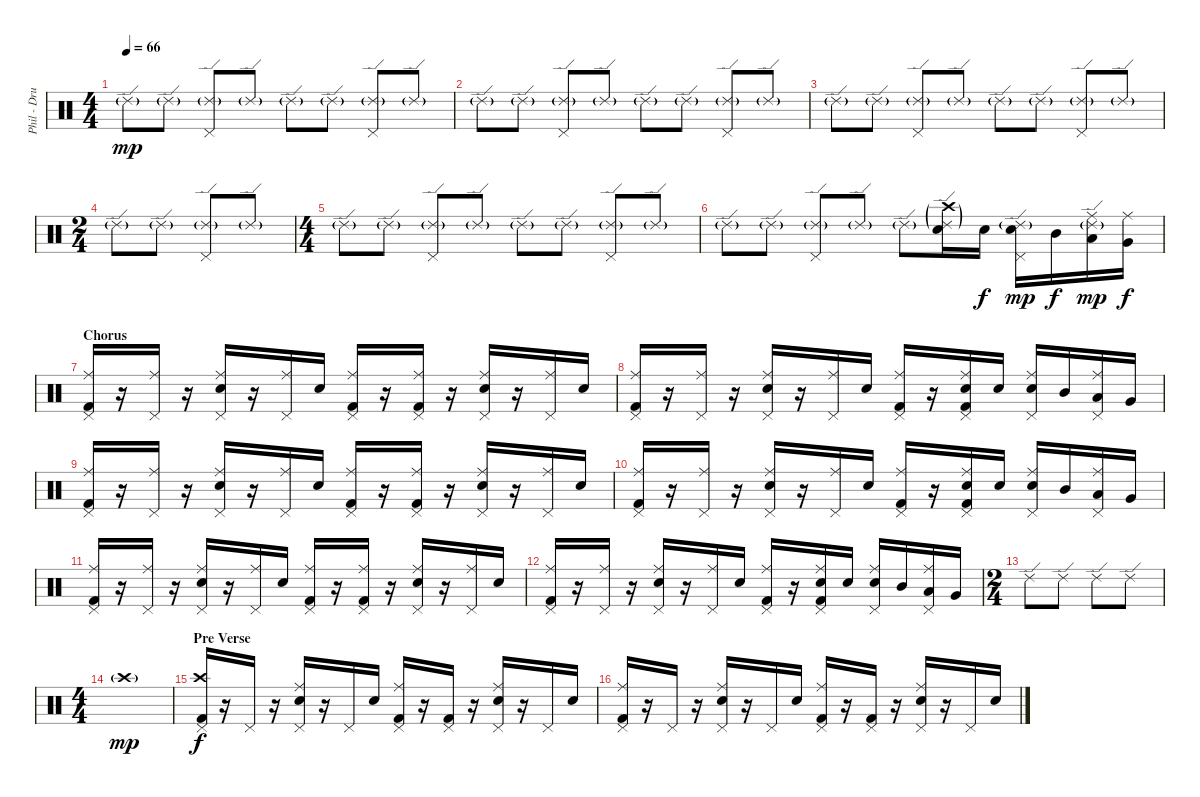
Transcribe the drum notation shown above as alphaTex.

\track ("Phil - Drums" "Phil - Dru") {instrument percussion}
\staff {score}
\articulation defaults
\ts (4 4)
\tempo 66
\clef neutral
\ks c "Ride (edge) 2"{g}.8{dy mp} "Ride (edge) 2"{g}.8
("Pedal Hi-Hat (hit)" "Ride (edge) 2"{g}).8 "Ride (edge) 2"{g}.8 "Ride (edge) 2"{g}.8 "Ride (edge) 2"{g}.8 ("Pedal Hi-Hat (hit)" "Ride (edge) 2"{g}).8 "Ride (edge) 2"{g}.8 |
"Ride (edge) 2"{g}.8 "Ride (edge) 2"{g}.8 ("Pedal Hi-Hat (hit)" "Ride (edge) 2"{g}).8 "Ride (edge) 2"{g}.8 "Ride (edge) 2"{g}.8 "Ride (edge) 2"{g}.8 ("Pedal Hi-Hat (hit)" "Ride (edge) 2"{g}).8 "Ride (edge) 2"{g}.8 |
"Ride (edge) 2"{g}.8 "Ride (edge) 2"{g}.8 ("Pedal Hi-Hat (hit)" "Ride (edge) 2"{g}).8 "Ride (edge) 2"{g}.8 "Ride (edge) 2"{g}.8 "Ride (edge) 2"{g}.8 ("Pedal Hi-Hat (hit)" "Ride (edge) 2"{g}).8 "Ride (edge) 2"{g}.8 |
\ts (2 4)
"Ride (edge) 2"{g}.8 "Ride (edge) 2"{g}.8 ("Pedal Hi-Hat (hit)" "Ride (edge) 2"{g}).8 "Ride (edge) 2"{g}.8 |
\ts (4 4)
"Ride (edge) 2"{g}.8 "Ride (edge) 2"{g}.8 ("Pedal Hi-Hat (hit)" "Ride (edge) 2"{g}).8 "Ride (edge) 2"{g}.8 "Ride (edge) 2"{g}.8 "Ride (edge) 2"{g}.8 ("Pedal Hi-Hat (hit)" "Ride (edge) 2"{g}).8 "Ride (edge) 2"{g}.8 |
"Ride (edge) 2"{g}.8 "Ride (edge) 2"{g}.8 ("Pedal Hi-Hat (hit)" "Ride (edge) 2"{g}).8 "Ride (edge) 2"{g}.8 "Ride (edge) 2"{g}.8 ("Crash high (hit)"{g} "Electric Snare (hit)" "Ride (edge) 2"{g}).16 "Electric Snare (hit)".16{dy f} ("Pedal Hi-Hat (hit)" "Electric Snare (hit)" "Ride (edge) 2"{g}).16{dy mp} "Mid Tom (hit)".16{dy f} ("Ride (middle)" "Low Tom (hit)" "Ride (edge) 2"{g}).16{dy mp} ("Ride (middle)" "Very Low Tom (hit)").16{dy f} |
\section ("" "Chorus")
("Ride (middle)" "Kick (hit) 2" "Pedal Hi-Hat (hit)").16 r.16 ("Ride (middle)" "Pedal Hi-Hat (hit)").16 r.16 ("Ride (middle)" "Electric Snare (hit)" "Pedal Hi-Hat (hit)").16 r.16 ("Ride (middle)" "Pedal Hi-Hat (hit)").16 "Electric Snare (hit)".16 ("Ride (middle)" "Kick (hit) 2" "Pedal Hi-Hat (hit)").16 r.16 ("Ride (middle)" "Kick (hit) 2" "Pedal Hi-Hat (hit)").16 r.16 ("Ride (middle)" "Electric Snare (hit)" "Pedal Hi-Hat (hit)").16 r.16 ("Ride (middle)" "Pedal Hi-Hat (hit)").16 "Electric Snare (hit)".16 |
("Ride (middle)" "Kick (hit) 2" "Pedal Hi-Hat (hit)").16 r.16 ("Ride (middle)" "Pedal Hi-Hat (hit)").16 r.16 ("Ride (middle)" "Electric Snare (hit)" "Pedal Hi-Hat (hit)").16 r.16 ("Ride (middle)" "Pedal Hi-Hat (hit)").16 "Electric Snare (hit)".16 ("Ride (middle)" "Kick (hit) 2" "Pedal Hi-Hat (hit)").16 r.16 ("Ride (middle)" "Electric Snare (hit)" "Kick (hit) 2" "Pedal Hi-Hat (hit)").16 "Electric Snare (hit)".16 ("Ride (middle)" "Electric Snare (hit)" "Pedal Hi-Hat (hit)").16 "Mid Tom (hit)".16 ("Ride (middle)" "Low Tom (hit)" "Pedal Hi-Hat (hit)").16 "Very Low Tom (hit)".16 |
("Ride (middle)" "Kick (hit) 2" "Pedal Hi-Hat (hit)").16 r.16 ("Ride (middle)" "Pedal Hi-Hat (hit)").16 r.16 ("Ride (middle)" "Electric Snare (hit)" "Pedal Hi-Hat (hit)").16 r.16 ("Ride (middle)" "Pedal Hi-Hat (hit)").16 "Electric Snare (hit)".16 ("Ride (middle)" "Kick (hit) 2" "Pedal Hi-Hat (hit)").16 r.16 ("Ride (middle)" "Kick (hit) 2" "Pedal Hi-Hat (hit)").16 r.16 ("Ride (middle)" "Electric Snare (hit)" "Pedal Hi-Hat (hit)").16 r.16 ("Ride (middle)" "Pedal Hi-Hat (hit)").16 "Electric Snare (hit)".16 |
("Ride (middle)" "Kick (hit) 2" "Pedal Hi-Hat (hit)").16 r.16 ("Ride (middle)" "Pedal Hi-Hat (hit)").16 r.16 ("Ride (middle)" "Electric Snare (hit)" "Pedal Hi-Hat (hit)").16 r.16 ("Ride (middle)" "Pedal Hi-Hat (hit)").16 "Electric Snare (hit)".16 ("Ride (middle)" "Kick (hit) 2" "Pedal Hi-Hat (hit)").16 r.16 ("Ride (middle)" "Electric Snare (hit)" "Kick (hit) 2" "Pedal Hi-Hat (hit)").16 "Electric Snare (hit)".16 ("Ride (middle)" "Electric Snare (hit)" "Pedal Hi-Hat (hit)").16 "Mid Tom (hit)".16 ("Ride (middle)" "Low Tom (hit)" "Pedal Hi-Hat (hit)").16 "Very Low Tom (hit)".16 |
("Ride (middle)" "Kick (hit) 2" "Pedal Hi-Hat (hit)").16 r.16 ("Ride (middle)" "Pedal Hi-Hat (hit)").16 r.16 ("Ride (middle)" "Electric Snare (hit)" "Pedal Hi-Hat (hit)").16 r.16 ("Ride (middle)" "Pedal Hi-Hat (hit)").16 "Electric Snare (hit)".16 ("Ride (middle)" "Kick (hit) 2" "Pedal Hi-Hat (hit)").16 r.16 ("Ride (middle)" "Kick (hit) 2" "Pedal Hi-Hat (hit)").16 r.16 ("Ride (middle)" "Electric Snare (hit)" "Pedal Hi-Hat (hit)").16 r.16 ("Ride (middle)" "Pedal Hi-Hat (hit)").16 "Electric Snare (hit)".16 |
("Ride (middle)" "Kick (hit) 2" "Pedal Hi-Hat (hit)").16 r.16 ("Ride (middle)" "Pedal Hi-Hat (hit)").16 r.16 ("Ride (middle)" "Electric Snare (hit)" "Pedal Hi-Hat (hit)").16 r.16 ("Ride (middle)" "Pedal Hi-Hat (hit)").16 "Electric Snare (hit)".16 ("Ride (middle)" "Kick (hit) 2" "Pedal Hi-Hat (hit)").16 r.16 ("Ride (middle)" "Electric Snare (hit)" "Kick (hit) 2" "Pedal Hi-Hat (hit)").16 "Electric Snare (hit)".16 ("Ride (middle)" "Electric Snare (hit)" "Pedal Hi-Hat (hit)").16 "Mid Tom (hit)".16 ("Ride (middle)" "Low Tom (hit)" "Pedal Hi-Hat (hit)").16 "Very Low Tom (hit)".16 |
\ts (2 4)
"Ride (edge) 2".8 "Ride (edge) 2".8 "Ride (edge) 2".8 "Ride (edge) 2".8 |
\ts (4 4)
"Crash high (hit)"{g}.1{dy mp} |
\section ("" "Pre Verse")
("Crash high (hit)" "Kick (hit) 2" "Pedal Hi-Hat (hit)").16{dy f} r.16 "Pedal Hi-Hat (hit)".16 r.16 ("Ride (middle)" "Electric Snare (hit)" "Pedal Hi-Hat (hit)").16 r.16 "Pedal Hi-Hat (hit)".16 "Electric Snare (hit)".16 ("Ride (middle)" "Kick (hit) 2" "Pedal Hi-Hat (hit)").16 r.16 ("Kick (hit) 2" "Pedal Hi-Hat (hit)").16 r.16 ("Ride (middle)" "Electric Snare (hit)" "Pedal Hi-Hat (hit)").16 r.16 "Pedal Hi-Hat (hit)".16 "Electric Snare (hit)".16 |
("Ride (middle)" "Kick (hit) 2" "Pedal Hi-Hat (hit)").16 r.16 "Pedal Hi-Hat (hit)".16 r.16 ("Ride (middle)" "Electric Snare (hit)" "Pedal Hi-Hat (hit)").16 r.16 "Pedal Hi-Hat (hit)".16 "Electric Snare (hit)".16 ("Ride (middle)" "Kick (hit) 2" "Pedal Hi-Hat (hit)").16 r.16 ("Kick (hit) 2" "Pedal Hi-Hat (hit)").16 r.16 ("Ride (middle)" "Electric Snare (hit)" "Pedal Hi-Hat (hit)").16 r.16 "Pedal Hi-Hat (hit)".16 "Electric Snare (hit)".16
